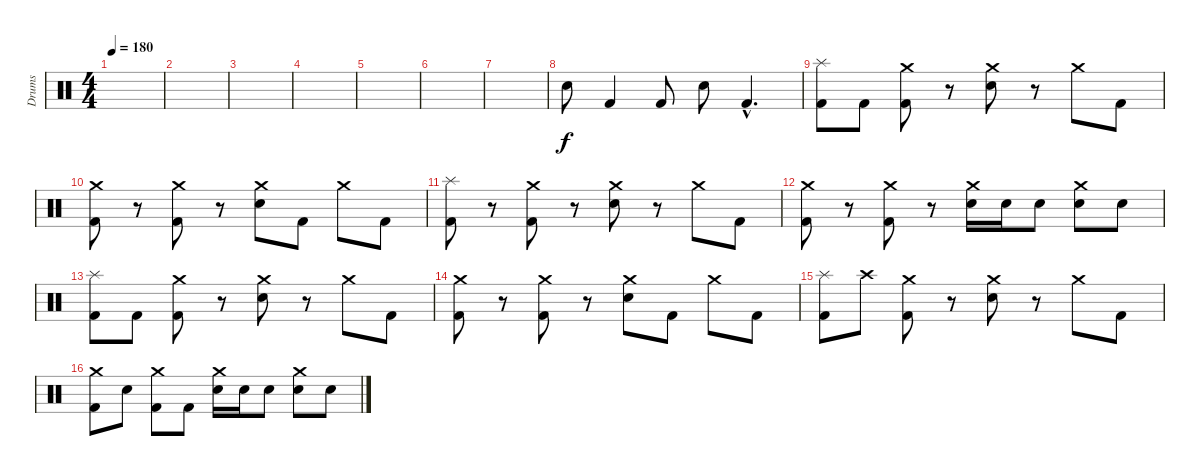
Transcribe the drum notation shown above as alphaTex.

\track ("Drums" "Drums") {instrument percussion}
\staff {score}
\articulation defaults
\ts (4 4)
\tempo 180
\clef neutral
\ks c
|
|
|
|
|
|
|
"Snare (hit) 2".8 "Kick (hit) 2".4 "Kick (hit) 2".8 "Snare (hit) 2".8 "Kick (hit) 2"{hac}.4{d} |
("Splash (hit)" "Kick (hit) 2").8 "Kick (hit) 2".8 ("Crash medium (hit)" "Kick (hit) 2").8 r.8 ("Crash medium (hit)" "Snare (hit) 2").8 r.8 "Crash medium (hit)".8 "Kick (hit) 2".8 |
("Crash medium (hit)" "Kick (hit) 2").8 r.8 ("Crash medium (hit)" "Kick (hit) 2").8 r.8 ("Crash medium (hit)" "Snare (hit) 2").8 "Kick (hit) 2".8 "Crash medium (hit)".8 "Kick (hit) 2".8 |
("Splash (hit)" "Kick (hit) 2").8 r.8 ("Crash medium (hit)" "Kick (hit) 2").8 r.8 ("Crash medium (hit)" "Snare (hit) 2").8 r.8 "Crash medium (hit)".8 "Kick (hit) 2".8 |
("Crash medium (hit)" "Kick (hit) 2").8 r.8 ("Crash medium (hit)" "Kick (hit) 2").8 r.8 ("Crash medium (hit)" "Snare (hit) 2").16 "Snare (hit) 2".16 "Snare (hit) 2".8 ("Crash medium (hit)" "Snare (hit) 2").8 "Snare (hit) 2".8 |
("Splash (hit)" "Kick (hit) 2").8 "Kick (hit) 2".8 ("Crash medium (hit)" "Kick (hit) 2").8 r.8 ("Crash medium (hit)" "Snare (hit) 2").8 r.8 "Crash medium (hit)".8 "Kick (hit) 2".8 |
("Crash medium (hit)" "Kick (hit) 2").8 r.8 ("Crash medium (hit)" "Kick (hit) 2").8 r.8 ("Crash medium (hit)" "Snare (hit) 2").8 "Kick (hit) 2".8 "Crash medium (hit)".8 "Kick (hit) 2".8 |
("Splash (hit)" "Kick (hit) 2").8 "Crash high (hit)".8 ("Crash medium (hit)" "Kick (hit) 2").8 r.8 ("Crash medium (hit)" "Snare (hit) 2").8 r.8 "Crash medium (hit)".8 "Kick (hit) 2".8 |
("Crash medium (hit)" "Kick (hit) 2").8 "Snare (hit) 2".8 ("Crash medium (hit)" "Kick (hit) 2").8 "Kick (hit) 2".8 ("Crash medium (hit)" "Snare (hit) 2").16 "Snare (hit) 2".16 "Snare (hit) 2".8 ("Crash medium (hit)" "Snare (hit) 2").8 "Snare (hit) 2".8
